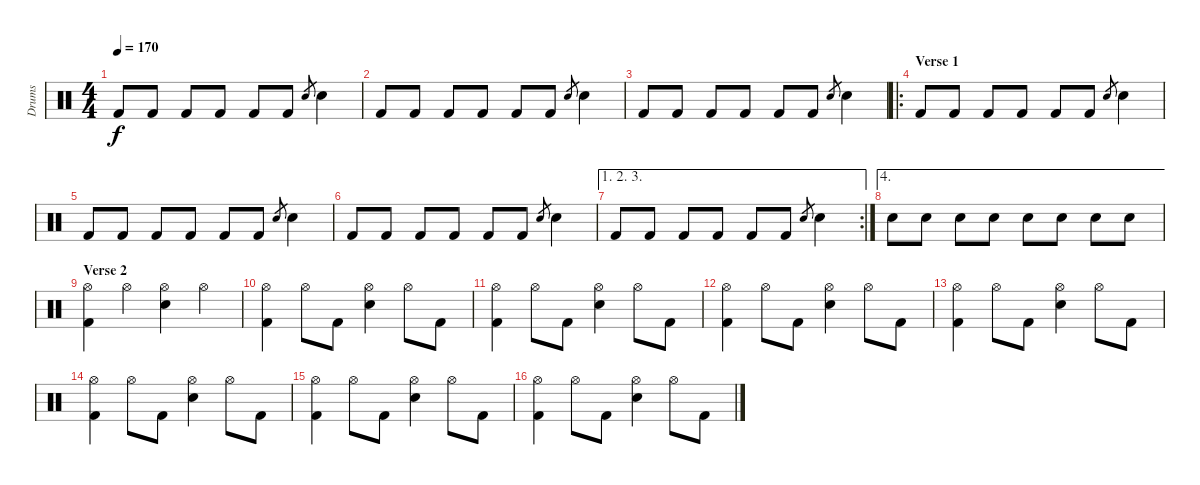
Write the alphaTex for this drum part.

\track ("Drums" "Drums") {instrument percussion}
\staff {score}
\articulation defaults
\ts (4 4)
\tempo 170
\clef neutral
\ks c "Kick (hit) 2".8{dy f} "Kick (hit) 2".8 "Kick (hit) 2".8 "Kick (hit) 2".8 "Kick (hit) 2".8 "Kick (hit) 2".8 "Snare (hit) 2".8{gr} "Snare (hit) 2".4
|
"Kick (hit) 2".8 "Kick (hit) 2".8 "Kick (hit) 2".8 "Kick (hit) 2".8 "Kick (hit) 2".8 "Kick (hit) 2".8 "Snare (hit) 2".8{gr} "Snare (hit) 2".4 |
"Kick (hit) 2".8 "Kick (hit) 2".8 "Kick (hit) 2".8 "Kick (hit) 2".8 "Kick (hit) 2".8 "Kick (hit) 2".8 "Snare (hit) 2".8{gr} "Snare (hit) 2".4 |
\ro
\section ("" "Verse 1")
"Kick (hit) 2".8 "Kick (hit) 2".8 "Kick (hit) 2".8 "Kick (hit) 2".8 "Kick (hit) 2".8 "Kick (hit) 2".8 "Snare (hit) 2".8{gr} "Snare (hit) 2".4 |
"Kick (hit) 2".8 "Kick (hit) 2".8 "Kick (hit) 2".8 "Kick (hit) 2".8 "Kick (hit) 2".8 "Kick (hit) 2".8 "Snare (hit) 2".8{gr} "Snare (hit) 2".4 |
"Kick (hit) 2".8 "Kick (hit) 2".8 "Kick (hit) 2".8 "Kick (hit) 2".8 "Kick (hit) 2".8 "Kick (hit) 2".8 "Snare (hit) 2".8{gr} "Snare (hit) 2".4 |
\ae (1 2 3)
\rc 2 "Kick (hit) 2".8 "Kick (hit) 2".8 "Kick (hit) 2".8 "Kick (hit) 2".8 "Kick (hit) 2".8 "Kick (hit) 2".8 "Snare (hit) 2".8{gr} "Snare (hit) 2".4
|
\ae 4 "Snare (hit) 2".8 "Snare (hit) 2".8 "Snare (hit) 2".8 "Snare (hit) 2".8 "Snare (hit) 2".8 "Snare (hit) 2".8 "Snare (hit) 2".8 "Snare (hit) 2".8
|
\section ("" "Verse 2")
("Hi-Hat (open)" "Kick (hit) 2").4 "Hi-Hat (open)".4 ("Hi-Hat (open)" "Snare (hit) 2").4 "Hi-Hat (open)".4 |
("Hi-Hat (open)" "Kick (hit) 2").4 "Hi-Hat (open)".8 "Kick (hit) 2".8 ("Hi-Hat (open)" "Snare (hit) 2").4 "Hi-Hat (open)".8 "Kick (hit) 2".8 |
("Hi-Hat (open)" "Kick (hit) 2").4 "Hi-Hat (open)".8 "Kick (hit) 2".8 ("Hi-Hat (open)" "Snare (hit) 2").4 "Hi-Hat (open)".8 "Kick (hit) 2".8 |
("Hi-Hat (open)" "Kick (hit) 2").4 "Hi-Hat (open)".8 "Kick (hit) 2".8 ("Hi-Hat (open)" "Snare (hit) 2").4 "Hi-Hat (open)".8 "Kick (hit) 2".8 |
("Hi-Hat (open)" "Kick (hit) 2").4 "Hi-Hat (open)".8 "Kick (hit) 2".8 ("Hi-Hat (open)" "Snare (hit) 2").4 "Hi-Hat (open)".8 "Kick (hit) 2".8 |
("Hi-Hat (open)" "Kick (hit) 2").4 "Hi-Hat (open)".8 "Kick (hit) 2".8 ("Hi-Hat (open)" "Snare (hit) 2").4 "Hi-Hat (open)".8 "Kick (hit) 2".8 |
("Hi-Hat (open)" "Kick (hit) 2").4 "Hi-Hat (open)".8 "Kick (hit) 2".8 ("Hi-Hat (open)" "Snare (hit) 2").4 "Hi-Hat (open)".8 "Kick (hit) 2".8 |
("Hi-Hat (open)" "Kick (hit) 2").4 "Hi-Hat (open)".8 "Kick (hit) 2".8 ("Hi-Hat (open)" "Snare (hit) 2").4 "Hi-Hat (open)".8 "Kick (hit) 2".8
